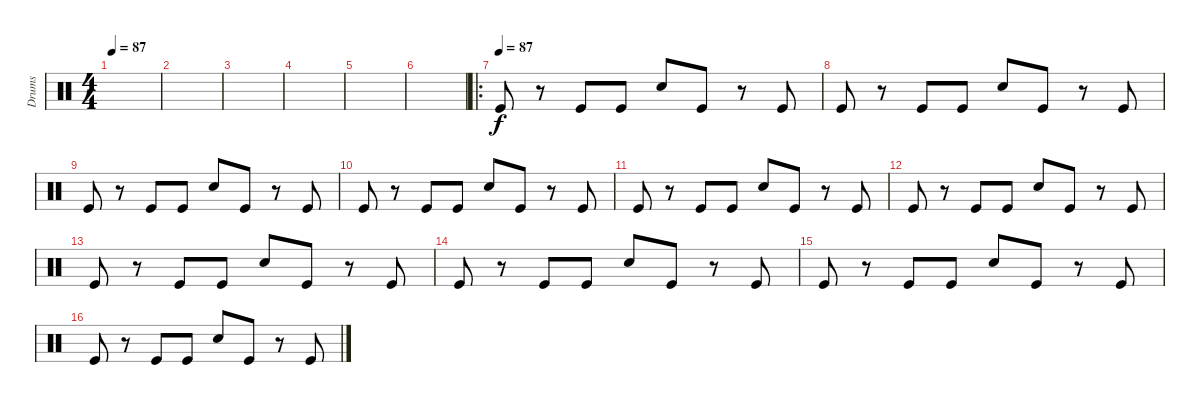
\track ("Drums" "Drums") {instrument percussion}
\staff {score}
\articulation defaults
\ts (4 4)
\tempo 87
\clef neutral
\ks c
|
|
|
|
|
|
\ro
\tempo (87)
"Kick (hit)".8 r.8 "Kick (hit)".8 "Kick (hit)".8 "Electric Snare (hit)".8 "Kick (hit)".8 r.8 "Kick (hit)".8 |
"Kick (hit)".8 r.8 "Kick (hit)".8 "Kick (hit)".8 "Electric Snare (hit)".8 "Kick (hit)".8 r.8 "Kick (hit)".8 |
"Kick (hit)".8 r.8 "Kick (hit)".8 "Kick (hit)".8 "Electric Snare (hit)".8 "Kick (hit)".8 r.8 "Kick (hit)".8 |
"Kick (hit)".8 r.8 "Kick (hit)".8 "Kick (hit)".8 "Electric Snare (hit)".8 "Kick (hit)".8 r.8 "Kick (hit)".8 |
"Kick (hit)".8 r.8 "Kick (hit)".8 "Kick (hit)".8 "Electric Snare (hit)".8 "Kick (hit)".8 r.8 "Kick (hit)".8 |
"Kick (hit)".8 r.8 "Kick (hit)".8 "Kick (hit)".8 "Electric Snare (hit)".8 "Kick (hit)".8 r.8 "Kick (hit)".8 |
"Kick (hit)".8 r.8 "Kick (hit)".8 "Kick (hit)".8 "Electric Snare (hit)".8 "Kick (hit)".8 r.8 "Kick (hit)".8 |
"Kick (hit)".8 r.8 "Kick (hit)".8 "Kick (hit)".8 "Electric Snare (hit)".8 "Kick (hit)".8 r.8 "Kick (hit)".8 |
"Kick (hit)".8 r.8 "Kick (hit)".8 "Kick (hit)".8 "Electric Snare (hit)".8 "Kick (hit)".8 r.8 "Kick (hit)".8 |
"Kick (hit)".8 r.8 "Kick (hit)".8 "Kick (hit)".8 "Electric Snare (hit)".8 "Kick (hit)".8 r.8 "Kick (hit)".8
